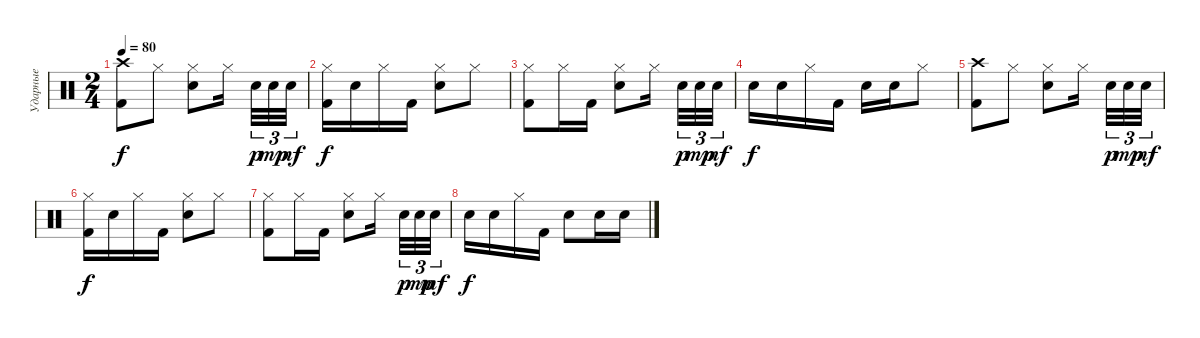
\track ("Ударные" "Ударные") {instrument percussion}
\staff {score}
\articulation defaults
\ts (2 4)
\tempo 80
\clef neutral
\ks c
("Crash high (hit)" "Kick (hit) 2").8{dy f} "Hi-Hat (closed)".8 ("Electric Snare (hit)" "Hi-Hat (closed)").8 "Hi-Hat (closed)".16{beam splitsecondary} "Electric Snare (hit)".32{tu (3 2) dy p} "Electric Snare (hit)".32{tu (3 2) dy mp} "Electric Snare (hit)".32{tu (3 2) dy mf} |
("Kick (hit) 2" "Hi-Hat (closed)").16{dy f} "Electric Snare (hit)".16 "Hi-Hat (closed)".16 "Kick (hit) 2".16 ("Electric Snare (hit)" "Hi-Hat (closed)").8 "Hi-Hat (closed)".8 |
("Hi-Hat (closed)" "Kick (hit) 2").8 "Hi-Hat (closed)".16 "Kick (hit) 2".16 ("Electric Snare (hit)" "Hi-Hat (closed)").8 "Hi-Hat (closed)".16{beam splitsecondary} "Electric Snare (hit)".32{tu (3 2) dy p} "Electric Snare (hit)".32{tu (3 2) dy mp} "Electric Snare (hit)".32{tu (3 2) dy mf} |
"Electric Snare (hit)".16{dy f} "Electric Snare (hit)".16 "Hi-Hat (closed)".16 "Kick (hit) 2".16 "Electric Snare (hit)".16 "Electric Snare (hit)".16 "Hi-Hat (closed)".8 |
("Crash high (hit)" "Kick (hit) 2").8 "Hi-Hat (closed)".8 ("Electric Snare (hit)" "Hi-Hat (closed)").8 "Hi-Hat (closed)".16{beam splitsecondary} "Electric Snare (hit)".32{tu (3 2) dy p} "Electric Snare (hit)".32{tu (3 2) dy mp} "Electric Snare (hit)".32{tu (3 2) dy mf} |
("Kick (hit) 2" "Hi-Hat (closed)").16{dy f} "Electric Snare (hit)".16 "Hi-Hat (closed)".16 "Kick (hit) 2".16 ("Electric Snare (hit)" "Hi-Hat (closed)").8 "Hi-Hat (closed)".8 |
("Hi-Hat (closed)" "Kick (hit) 2").8 "Hi-Hat (closed)".16 "Kick (hit) 2".16 ("Electric Snare (hit)" "Hi-Hat (closed)").8 "Hi-Hat (closed)".16{beam splitsecondary} "Electric Snare (hit)".32{tu (3 2) dy p} "Electric Snare (hit)".32{tu (3 2) dy mp} "Electric Snare (hit)".32{tu (3 2) dy mf} |
"Electric Snare (hit)".16{dy f} "Electric Snare (hit)".16 "Hi-Hat (closed)".16 "Kick (hit) 2".16 "Electric Snare (hit)".8 "Electric Snare (hit)".16 "Electric Snare (hit)".16
